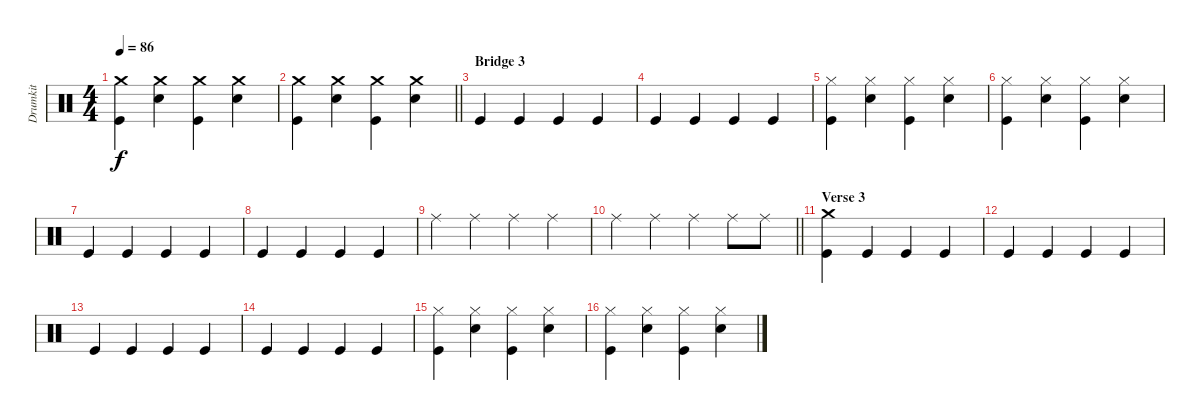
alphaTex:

\track ("Drumkit" "Drumkit") {instrument percussion}
\staff {score}
\articulation defaults
\ts (4 4)
\tempo 86
\clef neutral
\ks c
("Kick (hit)" "Crash medium (hit)").4{dy f} ("Snare (hit) 2" "Crash medium (hit)").4 ("Kick (hit)" "Crash medium (hit)").4 ("Snare (hit) 2" "Crash medium (hit)").4 |
\barLineRight lightlight
("Kick (hit)" "Crash medium (hit)").4 ("Snare (hit) 2" "Crash medium (hit)").4 ("Kick (hit)" "Crash medium (hit)").4 ("Snare (hit) 2" "Crash medium (hit)").4 |
\section ("" "Bridge 3")
"Kick (hit)".4 "Kick (hit)".4 "Kick (hit)".4 "Kick (hit)".4 |
"Kick (hit)".4 "Kick (hit)".4 "Kick (hit)".4 "Kick (hit)".4 |
("Kick (hit)" "Hi-Hat (closed)").4 ("Snare (hit) 2" "Hi-Hat (closed)").4 ("Hi-Hat (closed)" "Kick (hit)").4 ("Snare (hit) 2" "Hi-Hat (closed)").4 |
("Kick (hit)" "Hi-Hat (closed)").4 ("Snare (hit) 2" "Hi-Hat (closed)").4 ("Hi-Hat (closed)" "Kick (hit)").4 ("Snare (hit) 2" "Hi-Hat (closed)").4 |
"Kick (hit)".4 "Kick (hit)".4 "Kick (hit)".4 "Kick (hit)".4 |
"Kick (hit)".4 "Kick (hit)".4 "Kick (hit)".4 "Kick (hit)".4 |
"Ride (middle)".4 "Ride (middle)".4 "Ride (middle)".4 "Ride (middle)".4 |
\barLineRight lightlight "Ride (middle)".4 "Ride (middle)".4 "Ride (middle)".4 "Ride (middle)".8 "Ride (middle)".8
|
\section ("" "Verse 3")
("Kick (hit)" "Crash medium (hit)").4 "Kick (hit)".4 "Kick (hit)".4 "Kick (hit)".4 |
"Kick (hit)".4 "Kick (hit)".4 "Kick (hit)".4 "Kick (hit)".4 |
"Kick (hit)".4 "Kick (hit)".4 "Kick (hit)".4 "Kick (hit)".4 |
"Kick (hit)".4 "Kick (hit)".4 "Kick (hit)".4 "Kick (hit)".4 |
("Kick (hit)" "Hi-Hat (closed)").4 ("Snare (hit) 2" "Hi-Hat (closed)").4 ("Hi-Hat (closed)" "Kick (hit)").4 ("Snare (hit) 2" "Hi-Hat (closed)").4 |
("Kick (hit)" "Hi-Hat (closed)").4 ("Snare (hit) 2" "Hi-Hat (closed)").4 ("Hi-Hat (closed)" "Kick (hit)").4 ("Snare (hit) 2" "Hi-Hat (closed)").4
